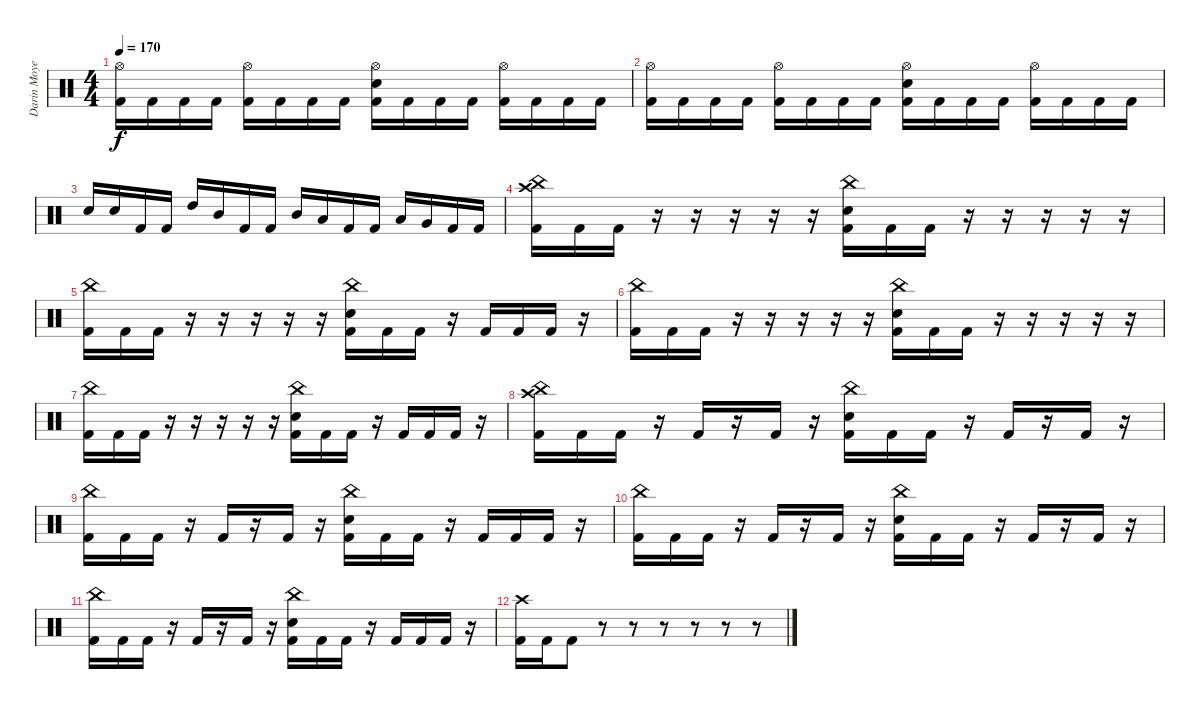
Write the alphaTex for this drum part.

\track ("Darin Moyen" "Darin Moye") {instrument percussion}
\staff {score}
\articulation defaults
\ts (4 4)
\tempo 170
\clef neutral
\ks c
("Hi-Hat (open)" "Kick (hit) 2").16{dy f} "Kick (hit) 2".16 "Kick (hit) 2".16 "Kick (hit) 2".16 ("Hi-Hat (open)" "Kick (hit) 2").16 "Kick (hit) 2".16 "Kick (hit) 2".16 "Kick (hit) 2".16 ("Hi-Hat (open)" "Electric Snare (hit)" "Kick (hit) 2").16 "Kick (hit) 2".16 "Kick (hit) 2".16 "Kick (hit) 2".16 ("Hi-Hat (open)" "Kick (hit) 2").16 "Kick (hit) 2".16 "Kick (hit) 2".16 "Kick (hit) 2".16 |
("Hi-Hat (open)" "Kick (hit) 2").16 "Kick (hit) 2".16 "Kick (hit) 2".16 "Kick (hit) 2".16 ("Hi-Hat (open)" "Kick (hit) 2").16 "Kick (hit) 2".16 "Kick (hit) 2".16 "Kick (hit) 2".16 ("Hi-Hat (open)" "Electric Snare (hit)" "Kick (hit) 2").16 "Kick (hit) 2".16 "Kick (hit) 2".16 "Kick (hit) 2".16 ("Hi-Hat (open)" "Kick (hit) 2").16 "Kick (hit) 2".16 "Kick (hit) 2".16 "Kick (hit) 2".16 |
"Electric Snare (hit)".16 "Electric Snare (hit)".16 "Kick (hit) 2".16 "Kick (hit) 2".16 "High Tom (hit)".16 "Mid Tom (hit)".16 "Kick (hit) 2".16 "Kick (hit) 2".16 "Mid Tom (hit)".16 "Low Tom (hit)".16 "Kick (hit) 2".16 "Kick (hit) 2".16 "Low Tom (hit)".16 "Very Low Tom (hit)".16 "Kick (hit) 2".16 "Kick (hit) 2".16 |
("Crash high (hit)" "China (hit)" "Kick (hit) 2").16 "Kick (hit) 2".16 "Kick (hit) 2".16 r.16 r.16 r.16 r.16 r.16 ("China (hit)" "Electric Snare (hit)" "Kick (hit) 2").16 "Kick (hit) 2".16 "Kick (hit) 2".16 r.16 r.16 r.16 r.16 r.16 |
("China (hit)" "Kick (hit) 2").16 "Kick (hit) 2".16 "Kick (hit) 2".16 r.16 r.16 r.16 r.16 r.16 ("China (hit)" "Electric Snare (hit)" "Kick (hit) 2").16 "Kick (hit) 2".16 "Kick (hit) 2".16 r.16 "Kick (hit) 2".16 "Kick (hit) 2".16 "Kick (hit) 2".16 r.16 |
("China (hit)" "Kick (hit) 2").16 "Kick (hit) 2".16 "Kick (hit) 2".16 r.16 r.16 r.16 r.16 r.16 ("China (hit)" "Electric Snare (hit)" "Kick (hit) 2").16 "Kick (hit) 2".16 "Kick (hit) 2".16 r.16 r.16 r.16 r.16 r.16 |
("China (hit)" "Kick (hit) 2").16 "Kick (hit) 2".16 "Kick (hit) 2".16 r.16 r.16 r.16 r.16 r.16 ("China (hit)" "Electric Snare (hit)" "Kick (hit) 2").16 "Kick (hit) 2".16 "Kick (hit) 2".16 r.16 "Kick (hit) 2".16 "Kick (hit) 2".16 "Kick (hit) 2".16 r.16 |
("Crash high (hit)" "China (hit)" "Kick (hit) 2").16 "Kick (hit) 2".16 "Kick (hit) 2".16 r.16 "Kick (hit) 2".16 r.16 "Kick (hit) 2".16 r.16 ("China (hit)" "Electric Snare (hit)" "Kick (hit) 2").16 "Kick (hit) 2".16 "Kick (hit) 2".16 r.16 "Kick (hit) 2".16 r.16 "Kick (hit) 2".16 r.16 |
("China (hit)" "Kick (hit) 2").16 "Kick (hit) 2".16 "Kick (hit) 2".16 r.16 "Kick (hit) 2".16 r.16 "Kick (hit) 2".16 r.16 ("China (hit)" "Electric Snare (hit)" "Kick (hit) 2").16 "Kick (hit) 2".16 "Kick (hit) 2".16 r.16 "Kick (hit) 2".16 "Kick (hit) 2".16 "Kick (hit) 2".16 r.16 |
("China (hit)" "Kick (hit) 2").16 "Kick (hit) 2".16 "Kick (hit) 2".16 r.16 "Kick (hit) 2".16 r.16 "Kick (hit) 2".16 r.16 ("China (hit)" "Electric Snare (hit)" "Kick (hit) 2").16 "Kick (hit) 2".16 "Kick (hit) 2".16 r.16 "Kick (hit) 2".16 r.16 "Kick (hit) 2".16 r.16 |
("China (hit)" "Kick (hit) 2").16 "Kick (hit) 2".16 "Kick (hit) 2".16 r.16 "Kick (hit) 2".16 r.16 "Kick (hit) 2".16 r.16 ("China (hit)" "Electric Snare (hit)" "Kick (hit) 2").16 "Kick (hit) 2".16 "Kick (hit) 2".16 r.16 "Kick (hit) 2".16 "Kick (hit) 2".16 "Kick (hit) 2".16 r.16 |
("Crash high (hit)" "Kick (hit) 2").16 "Kick (hit) 2".16 "Kick (hit) 2".8 r.8{volume 0} r.8 r.8 r.8 r.8 r.8
